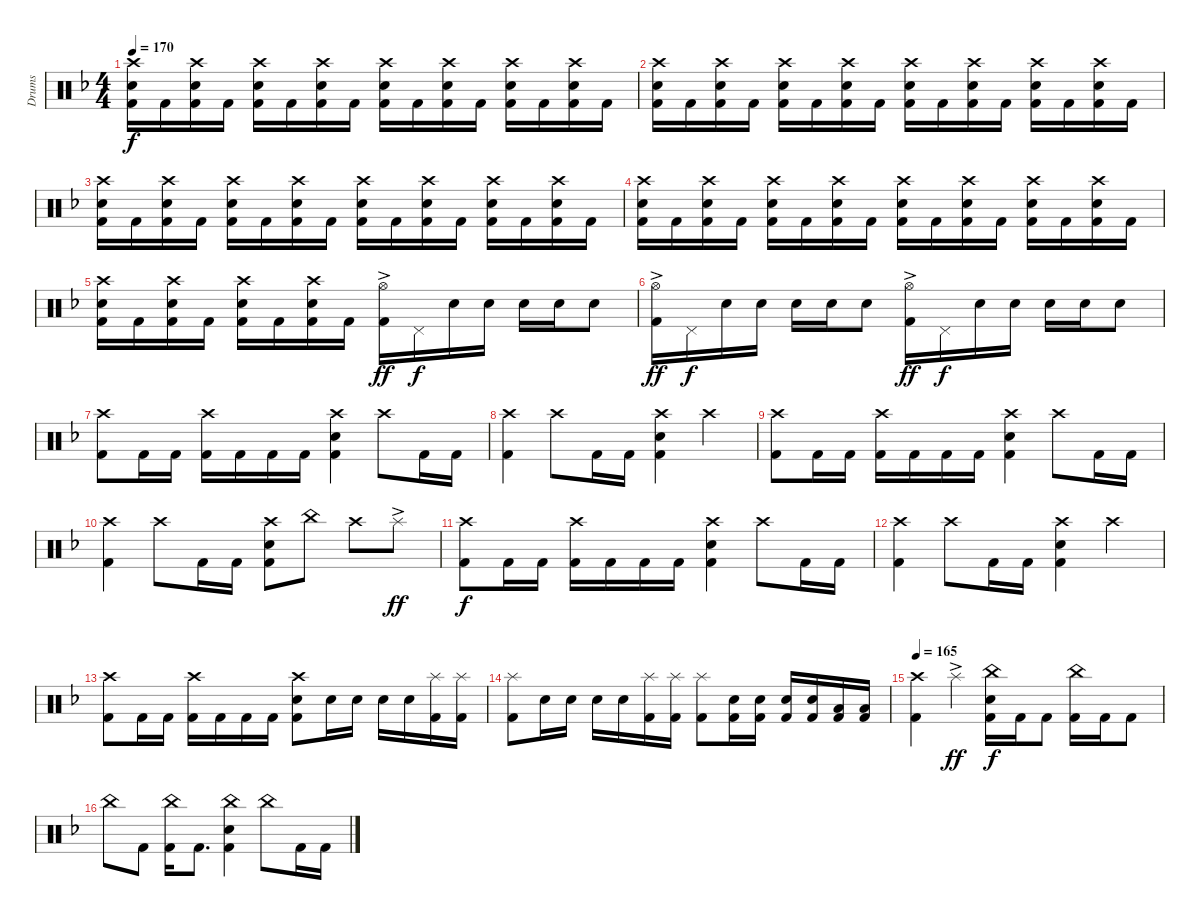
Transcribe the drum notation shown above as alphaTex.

\track ("Drums" "Drums") {instrument percussion}
\staff {score}
\articulation defaults
\ts (4 4)
\tempo 170
\clef neutral
\ks f
("Crash high (hit)" "Electric Snare (hit)" "Kick (hit) 2").16{dy f} "Kick (hit) 2".16 ("Crash high (hit)" "Electric Snare (hit)" "Kick (hit) 2").16 "Kick (hit) 2".16 ("Crash high (hit)" "Electric Snare (hit)" "Kick (hit) 2").16 "Kick (hit) 2".16 ("Crash high (hit)" "Electric Snare (hit)" "Kick (hit) 2").16 "Kick (hit) 2".16 ("Crash high (hit)" "Electric Snare (hit)" "Kick (hit) 2").16 "Kick (hit) 2".16 ("Crash high (hit)" "Electric Snare (hit)" "Kick (hit) 2").16 "Kick (hit) 2".16 ("Crash high (hit)" "Electric Snare (hit)" "Kick (hit) 2").16 "Kick (hit) 2".16 ("Crash high (hit)" "Electric Snare (hit)" "Kick (hit) 2").16 "Kick (hit) 2".16 |
("Crash high (hit)" "Electric Snare (hit)" "Kick (hit) 2").16 "Kick (hit) 2".16 ("Crash high (hit)" "Electric Snare (hit)" "Kick (hit) 2").16 "Kick (hit) 2".16 ("Crash high (hit)" "Electric Snare (hit)" "Kick (hit) 2").16 "Kick (hit) 2".16 ("Crash high (hit)" "Electric Snare (hit)" "Kick (hit) 2").16 "Kick (hit) 2".16 ("Crash high (hit)" "Electric Snare (hit)" "Kick (hit) 2").16 "Kick (hit) 2".16 ("Crash high (hit)" "Electric Snare (hit)" "Kick (hit) 2").16 "Kick (hit) 2".16 ("Crash high (hit)" "Electric Snare (hit)" "Kick (hit) 2").16 "Kick (hit) 2".16 ("Crash high (hit)" "Electric Snare (hit)" "Kick (hit) 2").16 "Kick (hit) 2".16 |
("Crash high (hit)" "Electric Snare (hit)" "Kick (hit) 2").16 "Kick (hit) 2".16 ("Crash high (hit)" "Electric Snare (hit)" "Kick (hit) 2").16 "Kick (hit) 2".16 ("Crash high (hit)" "Electric Snare (hit)" "Kick (hit) 2").16 "Kick (hit) 2".16 ("Crash high (hit)" "Electric Snare (hit)" "Kick (hit) 2").16 "Kick (hit) 2".16 ("Crash high (hit)" "Electric Snare (hit)" "Kick (hit) 2").16 "Kick (hit) 2".16 ("Crash high (hit)" "Electric Snare (hit)" "Kick (hit) 2").16 "Kick (hit) 2".16 ("Crash high (hit)" "Electric Snare (hit)" "Kick (hit) 2").16 "Kick (hit) 2".16 ("Crash high (hit)" "Electric Snare (hit)" "Kick (hit) 2").16 "Kick (hit) 2".16 |
("Crash high (hit)" "Electric Snare (hit)" "Kick (hit) 2").16 "Kick (hit) 2".16 ("Crash high (hit)" "Electric Snare (hit)" "Kick (hit) 2").16 "Kick (hit) 2".16 ("Crash high (hit)" "Electric Snare (hit)" "Kick (hit) 2").16 "Kick (hit) 2".16 ("Crash high (hit)" "Electric Snare (hit)" "Kick (hit) 2").16 "Kick (hit) 2".16 ("Crash high (hit)" "Electric Snare (hit)" "Kick (hit) 2").16 "Kick (hit) 2".16 ("Crash high (hit)" "Electric Snare (hit)" "Kick (hit) 2").16 "Kick (hit) 2".16 ("Crash high (hit)" "Electric Snare (hit)" "Kick (hit) 2").16 "Kick (hit) 2".16 ("Crash high (hit)" "Electric Snare (hit)" "Kick (hit) 2").16 "Kick (hit) 2".16 |
("Crash high (hit)" "Electric Snare (hit)" "Kick (hit) 2").16 "Kick (hit) 2".16 ("Crash high (hit)" "Electric Snare (hit)" "Kick (hit) 2").16 "Kick (hit) 2".16 ("Crash high (hit)" "Electric Snare (hit)" "Kick (hit) 2").16 "Kick (hit) 2".16 ("Crash high (hit)" "Electric Snare (hit)" "Kick (hit) 2").16 "Kick (hit) 2".16 ("Hi-Hat (open)"{ac} "Kick (hit) 2").16{dy ff} "Pedal Hi-Hat (hit)".16{dy f} "Electric Snare (hit)".16 "Electric Snare (hit)".16 "Electric Snare (hit)".16 "Electric Snare (hit)".16 "Electric Snare (hit)".8 |
("Hi-Hat (open)"{ac} "Kick (hit) 2").16{dy ff} "Pedal Hi-Hat (hit)".16{dy f} "Electric Snare (hit)".16 "Electric Snare (hit)".16 "Electric Snare (hit)".16 "Electric Snare (hit)".16 "Electric Snare (hit)".8 ("Hi-Hat (open)"{ac} "Kick (hit) 2").16{dy ff} "Pedal Hi-Hat (hit)".16{dy f} "Electric Snare (hit)".16 "Electric Snare (hit)".16 "Electric Snare (hit)".16 "Electric Snare (hit)".16 "Electric Snare (hit)".8 |
("Crash high (hit)" "Kick (hit) 2").8 "Kick (hit) 2".16 "Kick (hit) 2".16 ("Crash high (hit)" "Kick (hit) 2").16 "Kick (hit) 2".16 "Kick (hit) 2".16 "Kick (hit) 2".16 ("Crash high (hit)" "Electric Snare (hit)" "Kick (hit) 2").4 "Crash high (hit)".8 "Kick (hit) 2".16 "Kick (hit) 2".16 |
("Crash high (hit)" "Kick (hit) 2").4 "Crash high (hit)".8 "Kick (hit) 2".16 "Kick (hit) 2".16 ("Crash high (hit)" "Electric Snare (hit)" "Kick (hit) 2").4 "Crash high (hit)".4 |
("Crash high (hit)" "Kick (hit) 2").8 "Kick (hit) 2".16 "Kick (hit) 2".16 ("Crash high (hit)" "Kick (hit) 2").16 "Kick (hit) 2".16 "Kick (hit) 2".16 "Kick (hit) 2".16 ("Crash high (hit)" "Electric Snare (hit)" "Kick (hit) 2").4 "Crash high (hit)".8 "Kick (hit) 2".16 "Kick (hit) 2".16 |
("Crash high (hit)" "Kick (hit) 2").4 "Crash high (hit)".8 "Kick (hit) 2".16 "Kick (hit) 2".16 ("Crash high (hit)" "Electric Snare (hit)" "Kick (hit) 2").8 "China (hit)".8 "Crash high (hit)".8 "Splash (hit)"{ac}.8{dy ff} |
("Crash high (hit)" "Kick (hit) 2").8{dy f} "Kick (hit) 2".16 "Kick (hit) 2".16 ("Crash high (hit)" "Kick (hit) 2").16 "Kick (hit) 2".16 "Kick (hit) 2".16 "Kick (hit) 2".16 ("Crash high (hit)" "Electric Snare (hit)" "Kick (hit) 2").4 "Crash high (hit)".8 "Kick (hit) 2".16 "Kick (hit) 2".16 |
("Crash high (hit)" "Kick (hit) 2").4 "Crash high (hit)".8 "Kick (hit) 2".16 "Kick (hit) 2".16 ("Crash high (hit)" "Electric Snare (hit)" "Kick (hit) 2").4 "Crash high (hit)".4 |
("Crash high (hit)" "Kick (hit) 2").8 "Kick (hit) 2".16 "Kick (hit) 2".16 ("Crash high (hit)" "Kick (hit) 2").16 "Kick (hit) 2".16 "Kick (hit) 2".16 "Kick (hit) 2".16 ("Crash high (hit)" "Electric Snare (hit)" "Kick (hit) 2").8 "Electric Snare (hit)".16 "Electric Snare (hit)".16 "Electric Snare (hit)".16 "Electric Snare (hit)".16 ("Splash (hit)" "Kick (hit) 2").16 ("Splash (hit)" "Kick (hit) 2").16 |
("Splash (hit)" "Kick (hit) 2").8 "Electric Snare (hit)".16 "Electric Snare (hit)".16 "Electric Snare (hit)".16 "Electric Snare (hit)".16 ("Splash (hit)" "Kick (hit) 2").16 ("Splash (hit)" "Kick (hit) 2").16 ("Splash (hit)" "Kick (hit) 2").8 ("Electric Snare (hit)" "Kick (hit) 2").16 ("Electric Snare (hit)" "Kick (hit) 2").16 ("Electric Snare (hit)" "Kick (hit) 2").16 ("Electric Snare (hit)" "Kick (hit) 2").16 ("Low Tom (hit)" "Kick (hit) 2").16 ("Low Tom (hit)" "Kick (hit) 2").16 |
\tempo 165
("Crash high (hit)" "Kick (hit) 2").4 "Splash (hit)"{ac}.4{dy ff} ("China (hit)" "Electric Snare (hit)" "Kick (hit) 2").16{dy f} "Kick (hit) 2".16 "Kick (hit) 2".8 ("China (hit)" "Kick (hit) 2").16 "Kick (hit) 2".16 "Kick (hit) 2".8 |
"China (hit)".8 "Kick (hit) 2".8 ("China (hit)" "Kick (hit) 2").16 "Kick (hit) 2".8{d} ("China (hit)" "Electric Snare (hit)" "Kick (hit) 2").4 "China (hit)".8 "Kick (hit) 2".16 "Kick (hit) 2".16
